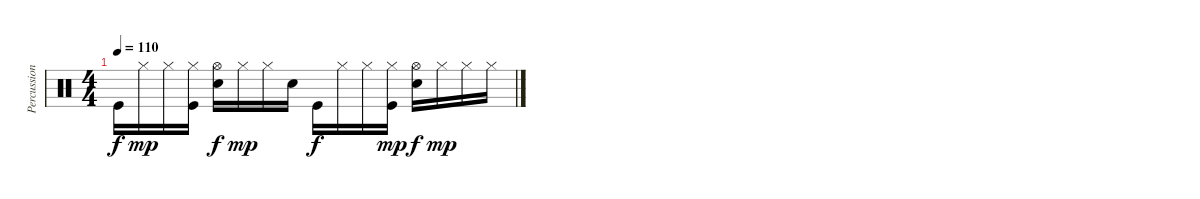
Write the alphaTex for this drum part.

\track ("Percussions" "Percussion") {instrument percussion}
\staff {score}
\articulation defaults
\ts (4 4)
\tempo 110
\clef neutral
\ks c "Kick (hit)".16{dy f} "Hi-Hat (closed)".16{dy mp} "Hi-Hat (closed)".16
("Hi-Hat (closed)" "Kick (hit)").16 ("Hi-Hat (open)" "Electric Snare (hit)").16{dy f} "Hi-Hat (closed)".16{dy mp} "Hi-Hat (closed)".16 "Electric Snare (hit)".16 "Kick (hit)".16{dy f} "Hi-Hat (closed)".16 "Hi-Hat (closed)".16 ("Hi-Hat (closed)" "Kick (hit)").16{dy mp} ("Hi-Hat (open)" "Electric Snare (hit)").16{dy f} "Hi-Hat (closed)".16{dy mp} "Hi-Hat (closed)".16 "Hi-Hat (closed)".16
